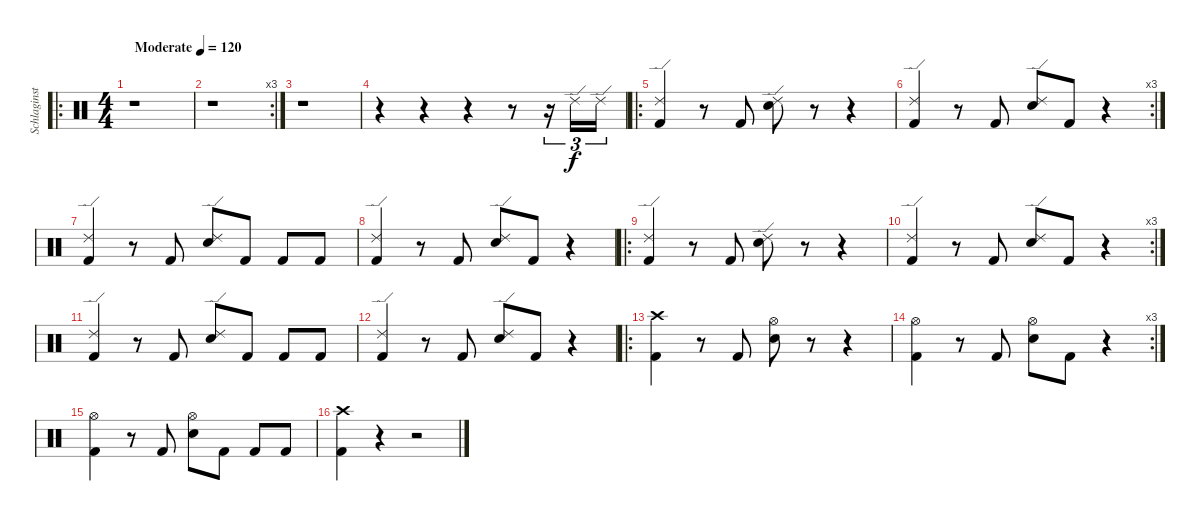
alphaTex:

\track ("Schlaginstrumente - Auswahl" "Schlaginst") {instrument percussion}
\staff {score}
\articulation defaults
\ro
\ts (4 4)
\tempo (120 "Moderate")
\clef neutral
\ks c
r.1{dy f} |
\rc 3
r.1 |
r.1 |
r.4 r.4 r.4 r.8 r.16{tu (3 2)} "Ride (edge) 2".16{tu (3 2)} "Ride (edge) 2".16{tu (3 2)} |
\ro
("Kick (hit) 2" "Ride (edge) 2").4 r.8 "Kick (hit) 2".8 ("Snare (hit) 2" "Ride (edge) 2").8 r.8 r.4 |
\rc 3
("Kick (hit) 2" "Ride (edge) 2").4 r.8 "Kick (hit) 2".8 ("Snare (hit) 2" "Ride (edge) 2").8 "Kick (hit) 2".8 r.4 |
("Kick (hit) 2" "Ride (edge) 2").4 r.8 "Kick (hit) 2".8 ("Snare (hit) 2" "Ride (edge) 2").8 "Kick (hit) 2".8 "Kick (hit) 2".8 "Kick (hit) 2".8 |
("Kick (hit) 2" "Ride (edge) 2").4 r.8 "Kick (hit) 2".8 ("Snare (hit) 2" "Ride (edge) 2").8 "Kick (hit) 2".8 r.4 |
\ro
("Kick (hit) 2" "Ride (edge) 2").4 r.8 "Kick (hit) 2".8 ("Snare (hit) 2" "Ride (edge) 2").8 r.8 r.4 |
\rc 3
("Kick (hit) 2" "Ride (edge) 2").4 r.8 "Kick (hit) 2".8 ("Snare (hit) 2" "Ride (edge) 2").8 "Kick (hit) 2".8 r.4 |
("Kick (hit) 2" "Ride (edge) 2").4 r.8 "Kick (hit) 2".8 ("Snare (hit) 2" "Ride (edge) 2").8 "Kick (hit) 2".8 "Kick (hit) 2".8 "Kick (hit) 2".8 |
("Kick (hit) 2" "Ride (edge) 2").4 r.8 "Kick (hit) 2".8 ("Snare (hit) 2" "Ride (edge) 2").8 "Kick (hit) 2".8 r.4 |
\ro
("Kick (hit) 2" "Crash high (hit)").4 r.8 "Kick (hit) 2".8 ("Snare (hit) 2" "Hi-Hat (open)").8 r.8 r.4 |
\rc 3
("Kick (hit) 2" "Hi-Hat (open)").4 r.8 "Kick (hit) 2".8 ("Snare (hit) 2" "Hi-Hat (open)").8 "Kick (hit) 2".8 r.4 |
("Kick (hit) 2" "Hi-Hat (open)").4 r.8 "Kick (hit) 2".8 ("Snare (hit) 2" "Hi-Hat (open)").8 "Kick (hit) 2".8 "Kick (hit) 2".8 "Kick (hit) 2".8 |
("Kick (hit) 2" "Crash high (hit)").4 r.4 r.2
